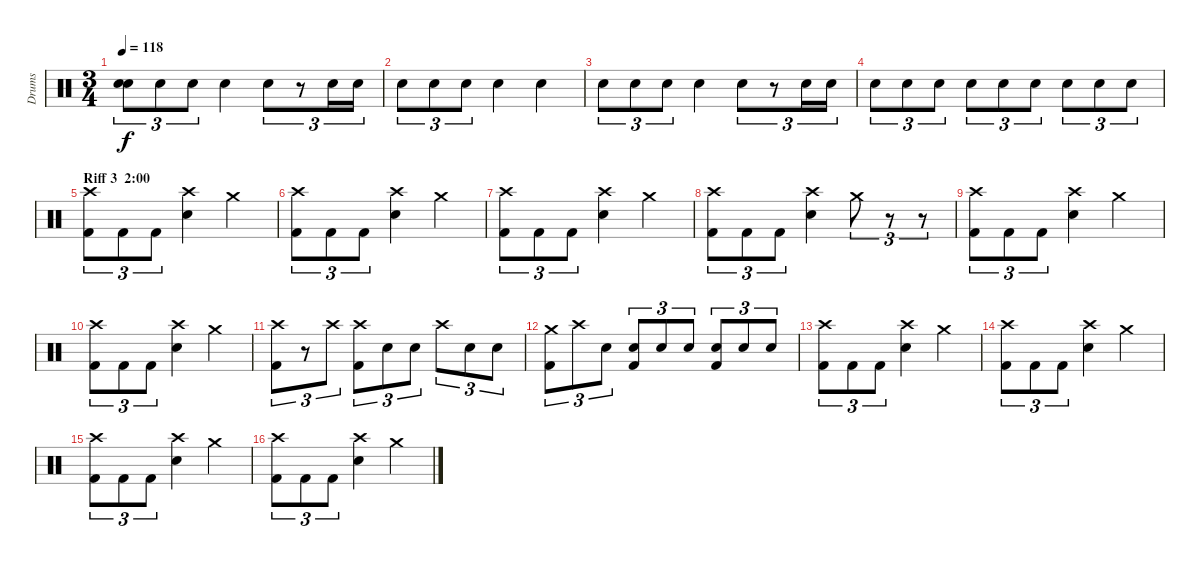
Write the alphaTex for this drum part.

\track ("Drums" "Drums") {instrument percussion}
\staff {score}
\articulation defaults
\ts (3 4)
\tempo 118
\clef neutral
\ks c
("Electric Snare (hit)" "Snare (hit) 2").8{tu (3 2) dy f} "Electric Snare (hit)".8{tu (3 2)} "Electric Snare (hit)".8{tu (3 2)} "Electric Snare (hit)".4 "Electric Snare (hit)".8{tu (3 2)} r.8{tu (3 2)} "Electric Snare (hit)".16{tu (3 2)} "Electric Snare (hit)".16{tu (3 2)} |
"Electric Snare (hit)".8{tu (3 2)} "Electric Snare (hit)".8{tu (3 2)} "Electric Snare (hit)".8{tu (3 2)} "Electric Snare (hit)".4 "Electric Snare (hit)".4 |
"Electric Snare (hit)".8{tu (3 2)} "Electric Snare (hit)".8{tu (3 2)} "Electric Snare (hit)".8{tu (3 2)} "Electric Snare (hit)".4 "Electric Snare (hit)".8{tu (3 2)} r.8{tu (3 2)} "Electric Snare (hit)".16{tu (3 2)} "Electric Snare (hit)".16{tu (3 2)} |
"Electric Snare (hit)".8{tu (3 2) volume 14} "Electric Snare (hit)".8{tu (3 2)} "Electric Snare (hit)".8{tu (3 2)} "Electric Snare (hit)".8{tu (3 2)} "Electric Snare (hit)".8{tu (3 2)} "Electric Snare (hit)".8{tu (3 2)} "Electric Snare (hit)".8{tu (3 2)} "Electric Snare (hit)".8{tu (3 2)} "Electric Snare (hit)".8{tu (3 2)} |
\section ("" "Riff 3  2:00")
("Crash high (hit)" "Kick (hit) 2").8{tu (3 2) volume 13} "Kick (hit) 2".8{tu (3 2)} "Kick (hit) 2".8{tu (3 2)} ("Crash high (hit)" "Snare (hit) 2").4 "Crash medium (hit)".4 |
("Crash high (hit)" "Kick (hit) 2").8{tu (3 2)} "Kick (hit) 2".8{tu (3 2)} "Kick (hit) 2".8{tu (3 2)} ("Crash high (hit)" "Snare (hit) 2").4 "Crash medium (hit)".4 |
("Crash high (hit)" "Kick (hit) 2").8{tu (3 2)} "Kick (hit) 2".8{tu (3 2)} "Kick (hit) 2".8{tu (3 2)} ("Crash high (hit)" "Snare (hit) 2").4 "Crash medium (hit)".4 |
("Crash high (hit)" "Kick (hit) 2").8{tu (3 2) volume 13} "Kick (hit) 2".8{tu (3 2)} "Kick (hit) 2".8{tu (3 2)} ("Crash high (hit)" "Snare (hit) 2").4 "Crash medium (hit)".8{tu (3 2)} r.8{tu (3 2)} r.8{tu (3 2)} |
("Crash high (hit)" "Kick (hit) 2").8{tu (3 2)} "Kick (hit) 2".8{tu (3 2)} "Kick (hit) 2".8{tu (3 2)} ("Crash high (hit)" "Snare (hit) 2").4 "Crash medium (hit)".4 |
("Crash high (hit)" "Kick (hit) 2").8{tu (3 2)} "Kick (hit) 2".8{tu (3 2)} "Kick (hit) 2".8{tu (3 2)} ("Crash high (hit)" "Snare (hit) 2").4 "Crash medium (hit)".4 |
("Crash high (hit)" "Kick (hit) 2").8{tu (3 2)} r.8{tu (3 2)} "Crash high (hit)".8{tu (3 2)} ("Crash high (hit)" "Kick (hit) 2").8{tu (3 2)} "Snare (hit) 2".8{tu (3 2)} "Snare (hit) 2".8{tu (3 2)} "Crash high (hit)".8{tu (3 2)} "Snare (hit) 2".8{tu (3 2)} "Snare (hit) 2".8{tu (3 2)} |
("Crash medium (hit)" "Kick (hit) 2").8{tu (3 2)} "Crash high (hit)".8{tu (3 2)} "Snare (hit) 2".8{tu (3 2)} ("Snare (hit) 2" "Kick (hit) 2").8{tu (3 2)} "Snare (hit) 2".8{tu (3 2)} "Snare (hit) 2".8{tu (3 2)} ("Snare (hit) 2" "Kick (hit) 2").8{tu (3 2)} "Snare (hit) 2".8{tu (3 2)} "Snare (hit) 2".8{tu (3 2)} |
("Crash high (hit)" "Kick (hit) 2").8{tu (3 2)} "Kick (hit) 2".8{tu (3 2)} "Kick (hit) 2".8{tu (3 2)} ("Crash high (hit)" "Snare (hit) 2").4 "Crash medium (hit)".4 |
("Crash high (hit)" "Kick (hit) 2").8{tu (3 2)} "Kick (hit) 2".8{tu (3 2)} "Kick (hit) 2".8{tu (3 2)} ("Crash high (hit)" "Snare (hit) 2").4 "Crash medium (hit)".4 |
("Crash high (hit)" "Kick (hit) 2").8{tu (3 2)} "Kick (hit) 2".8{tu (3 2)} "Kick (hit) 2".8{tu (3 2)} ("Crash high (hit)" "Snare (hit) 2").4 "Crash medium (hit)".4 |
("Crash high (hit)" "Kick (hit) 2").8{tu (3 2)} "Kick (hit) 2".8{tu (3 2)} "Kick (hit) 2".8{tu (3 2)} ("Crash high (hit)" "Snare (hit) 2").4 "Crash medium (hit)".4
